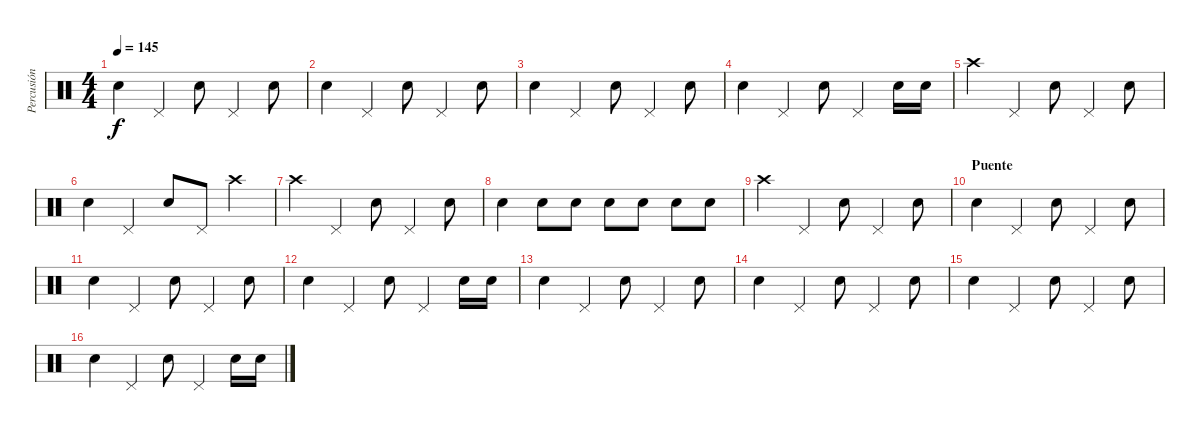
\track ("Percusión" "Percusión") {instrument percussion}
\staff {score}
\articulation defaults
\ts (4 4)
\tempo 145
\clef neutral
\ks c "Electric Snare (hit)".4{dy f} "Pedal Hi-Hat (hit)".4 "Electric Snare (hit)".8 "Pedal Hi-Hat (hit)".4 "Electric Snare (hit)".8
|
"Electric Snare (hit)".4 "Pedal Hi-Hat (hit)".4 "Electric Snare (hit)".8 "Pedal Hi-Hat (hit)".4 "Electric Snare (hit)".8 |
"Electric Snare (hit)".4 "Pedal Hi-Hat (hit)".4 "Electric Snare (hit)".8 "Pedal Hi-Hat (hit)".4 "Electric Snare (hit)".8 |
"Electric Snare (hit)".4 "Pedal Hi-Hat (hit)".4 "Electric Snare (hit)".8 "Pedal Hi-Hat (hit)".4 "Electric Snare (hit)".16 "Electric Snare (hit)".16 |
"Crash high (hit)".4 "Pedal Hi-Hat (hit)".4 "Electric Snare (hit)".8 "Pedal Hi-Hat (hit)".4 "Electric Snare (hit)".8 |
"Electric Snare (hit)".4 "Pedal Hi-Hat (hit)".4 "Electric Snare (hit)".8 "Pedal Hi-Hat (hit)".8 "Crash high (hit)".4 |
"Crash high (hit)".4 "Pedal Hi-Hat (hit)".4 "Electric Snare (hit)".8 "Pedal Hi-Hat (hit)".4 "Electric Snare (hit)".8 |
"Electric Snare (hit)".4 "Electric Snare (hit)".8 "Electric Snare (hit)".8 "Electric Snare (hit)".8 "Electric Snare (hit)".8 "Electric Snare (hit)".8 "Electric Snare (hit)".8 |
"Crash high (hit)".4 "Pedal Hi-Hat (hit)".4 "Electric Snare (hit)".8 "Pedal Hi-Hat (hit)".4 "Electric Snare (hit)".8 |
\section ("" "Puente")
"Electric Snare (hit)".4 "Pedal Hi-Hat (hit)".4 "Electric Snare (hit)".8 "Pedal Hi-Hat (hit)".4 "Electric Snare (hit)".8 |
"Electric Snare (hit)".4 "Pedal Hi-Hat (hit)".4 "Electric Snare (hit)".8 "Pedal Hi-Hat (hit)".4 "Electric Snare (hit)".8 |
"Electric Snare (hit)".4 "Pedal Hi-Hat (hit)".4 "Electric Snare (hit)".8 "Pedal Hi-Hat (hit)".4 "Electric Snare (hit)".16 "Electric Snare (hit)".16 |
"Electric Snare (hit)".4 "Pedal Hi-Hat (hit)".4 "Electric Snare (hit)".8 "Pedal Hi-Hat (hit)".4 "Electric Snare (hit)".8 |
"Electric Snare (hit)".4 "Pedal Hi-Hat (hit)".4 "Electric Snare (hit)".8 "Pedal Hi-Hat (hit)".4 "Electric Snare (hit)".8 |
"Electric Snare (hit)".4 "Pedal Hi-Hat (hit)".4 "Electric Snare (hit)".8 "Pedal Hi-Hat (hit)".4 "Electric Snare (hit)".8 |
"Electric Snare (hit)".4 "Pedal Hi-Hat (hit)".4 "Electric Snare (hit)".8 "Pedal Hi-Hat (hit)".4 "Electric Snare (hit)".16 "Electric Snare (hit)".16
